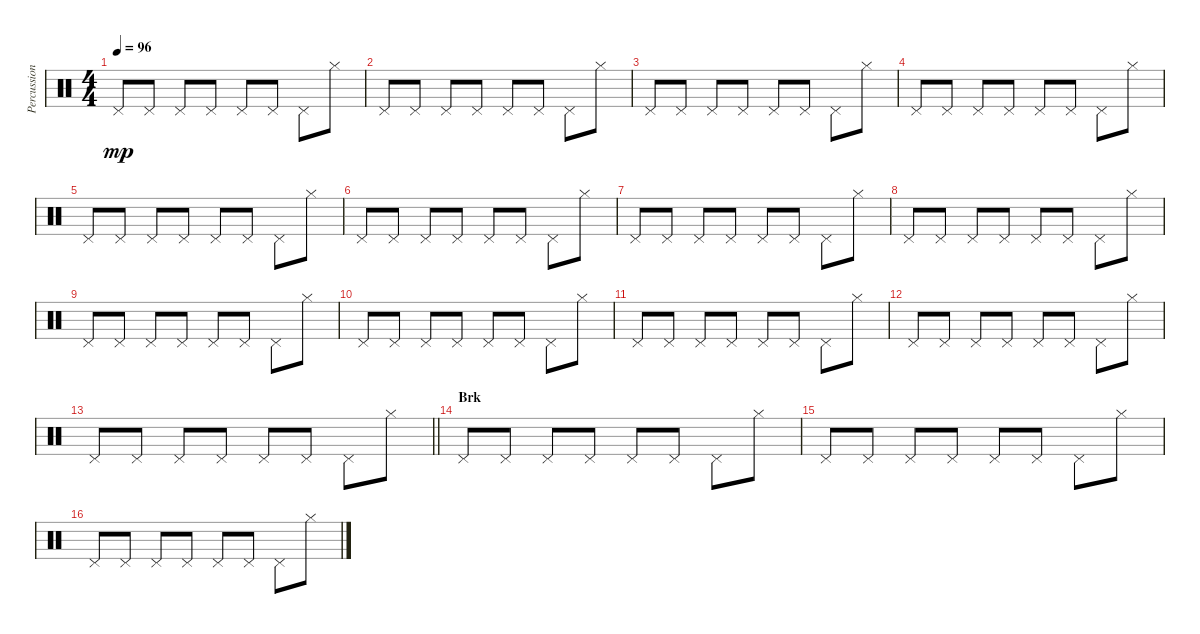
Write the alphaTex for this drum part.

\track ("Percussion" "Percussion") {instrument percussion}
\staff {score}
\articulation defaults
\ts (4 4)
\tempo 96
\clef neutral
\ks c "Pedal Hi-Hat (hit)".8{dy mp} "Pedal Hi-Hat (hit)".8 "Pedal Hi-Hat (hit)".8 "Pedal Hi-Hat (hit)".8 "Pedal Hi-Hat (hit)".8 "Pedal Hi-Hat (hit)".8 "Pedal Hi-Hat (hit)".8 "Hi-Hat (closed)".8
|
"Pedal Hi-Hat (hit)".8 "Pedal Hi-Hat (hit)".8 "Pedal Hi-Hat (hit)".8 "Pedal Hi-Hat (hit)".8 "Pedal Hi-Hat (hit)".8 "Pedal Hi-Hat (hit)".8 "Pedal Hi-Hat (hit)".8 "Hi-Hat (closed)".8 |
"Pedal Hi-Hat (hit)".8 "Pedal Hi-Hat (hit)".8 "Pedal Hi-Hat (hit)".8 "Pedal Hi-Hat (hit)".8 "Pedal Hi-Hat (hit)".8 "Pedal Hi-Hat (hit)".8 "Pedal Hi-Hat (hit)".8 "Hi-Hat (closed)".8 |
"Pedal Hi-Hat (hit)".8 "Pedal Hi-Hat (hit)".8 "Pedal Hi-Hat (hit)".8 "Pedal Hi-Hat (hit)".8 "Pedal Hi-Hat (hit)".8 "Pedal Hi-Hat (hit)".8 "Pedal Hi-Hat (hit)".8 "Hi-Hat (closed)".8 |
"Pedal Hi-Hat (hit)".8 "Pedal Hi-Hat (hit)".8 "Pedal Hi-Hat (hit)".8 "Pedal Hi-Hat (hit)".8 "Pedal Hi-Hat (hit)".8 "Pedal Hi-Hat (hit)".8 "Pedal Hi-Hat (hit)".8 "Hi-Hat (closed)".8 |
"Pedal Hi-Hat (hit)".8 "Pedal Hi-Hat (hit)".8 "Pedal Hi-Hat (hit)".8 "Pedal Hi-Hat (hit)".8 "Pedal Hi-Hat (hit)".8 "Pedal Hi-Hat (hit)".8 "Pedal Hi-Hat (hit)".8 "Hi-Hat (closed)".8 |
"Pedal Hi-Hat (hit)".8 "Pedal Hi-Hat (hit)".8 "Pedal Hi-Hat (hit)".8 "Pedal Hi-Hat (hit)".8 "Pedal Hi-Hat (hit)".8 "Pedal Hi-Hat (hit)".8 "Pedal Hi-Hat (hit)".8 "Hi-Hat (closed)".8 |
"Pedal Hi-Hat (hit)".8 "Pedal Hi-Hat (hit)".8 "Pedal Hi-Hat (hit)".8 "Pedal Hi-Hat (hit)".8 "Pedal Hi-Hat (hit)".8 "Pedal Hi-Hat (hit)".8 "Pedal Hi-Hat (hit)".8 "Hi-Hat (closed)".8 |
"Pedal Hi-Hat (hit)".8 "Pedal Hi-Hat (hit)".8 "Pedal Hi-Hat (hit)".8 "Pedal Hi-Hat (hit)".8 "Pedal Hi-Hat (hit)".8 "Pedal Hi-Hat (hit)".8 "Pedal Hi-Hat (hit)".8 "Hi-Hat (closed)".8 |
"Pedal Hi-Hat (hit)".8 "Pedal Hi-Hat (hit)".8 "Pedal Hi-Hat (hit)".8 "Pedal Hi-Hat (hit)".8 "Pedal Hi-Hat (hit)".8 "Pedal Hi-Hat (hit)".8 "Pedal Hi-Hat (hit)".8 "Hi-Hat (closed)".8 |
"Pedal Hi-Hat (hit)".8 "Pedal Hi-Hat (hit)".8 "Pedal Hi-Hat (hit)".8 "Pedal Hi-Hat (hit)".8 "Pedal Hi-Hat (hit)".8 "Pedal Hi-Hat (hit)".8 "Pedal Hi-Hat (hit)".8 "Hi-Hat (closed)".8 |
"Pedal Hi-Hat (hit)".8 "Pedal Hi-Hat (hit)".8 "Pedal Hi-Hat (hit)".8 "Pedal Hi-Hat (hit)".8 "Pedal Hi-Hat (hit)".8 "Pedal Hi-Hat (hit)".8 "Pedal Hi-Hat (hit)".8 "Hi-Hat (closed)".8 |
\barLineRight lightlight "Pedal Hi-Hat (hit)".8 "Pedal Hi-Hat (hit)".8 "Pedal Hi-Hat (hit)".8 "Pedal Hi-Hat (hit)".8 "Pedal Hi-Hat (hit)".8 "Pedal Hi-Hat (hit)".8 "Pedal Hi-Hat (hit)".8 "Hi-Hat (closed)".8
|
\section ("" "Brk")
"Pedal Hi-Hat (hit)".8 "Pedal Hi-Hat (hit)".8 "Pedal Hi-Hat (hit)".8 "Pedal Hi-Hat (hit)".8 "Pedal Hi-Hat (hit)".8 "Pedal Hi-Hat (hit)".8 "Pedal Hi-Hat (hit)".8 "Hi-Hat (closed)".8 |
"Pedal Hi-Hat (hit)".8 "Pedal Hi-Hat (hit)".8 "Pedal Hi-Hat (hit)".8 "Pedal Hi-Hat (hit)".8 "Pedal Hi-Hat (hit)".8 "Pedal Hi-Hat (hit)".8 "Pedal Hi-Hat (hit)".8 "Hi-Hat (closed)".8 |
"Pedal Hi-Hat (hit)".8 "Pedal Hi-Hat (hit)".8 "Pedal Hi-Hat (hit)".8 "Pedal Hi-Hat (hit)".8 "Pedal Hi-Hat (hit)".8 "Pedal Hi-Hat (hit)".8 "Pedal Hi-Hat (hit)".8 "Hi-Hat (closed)".8
